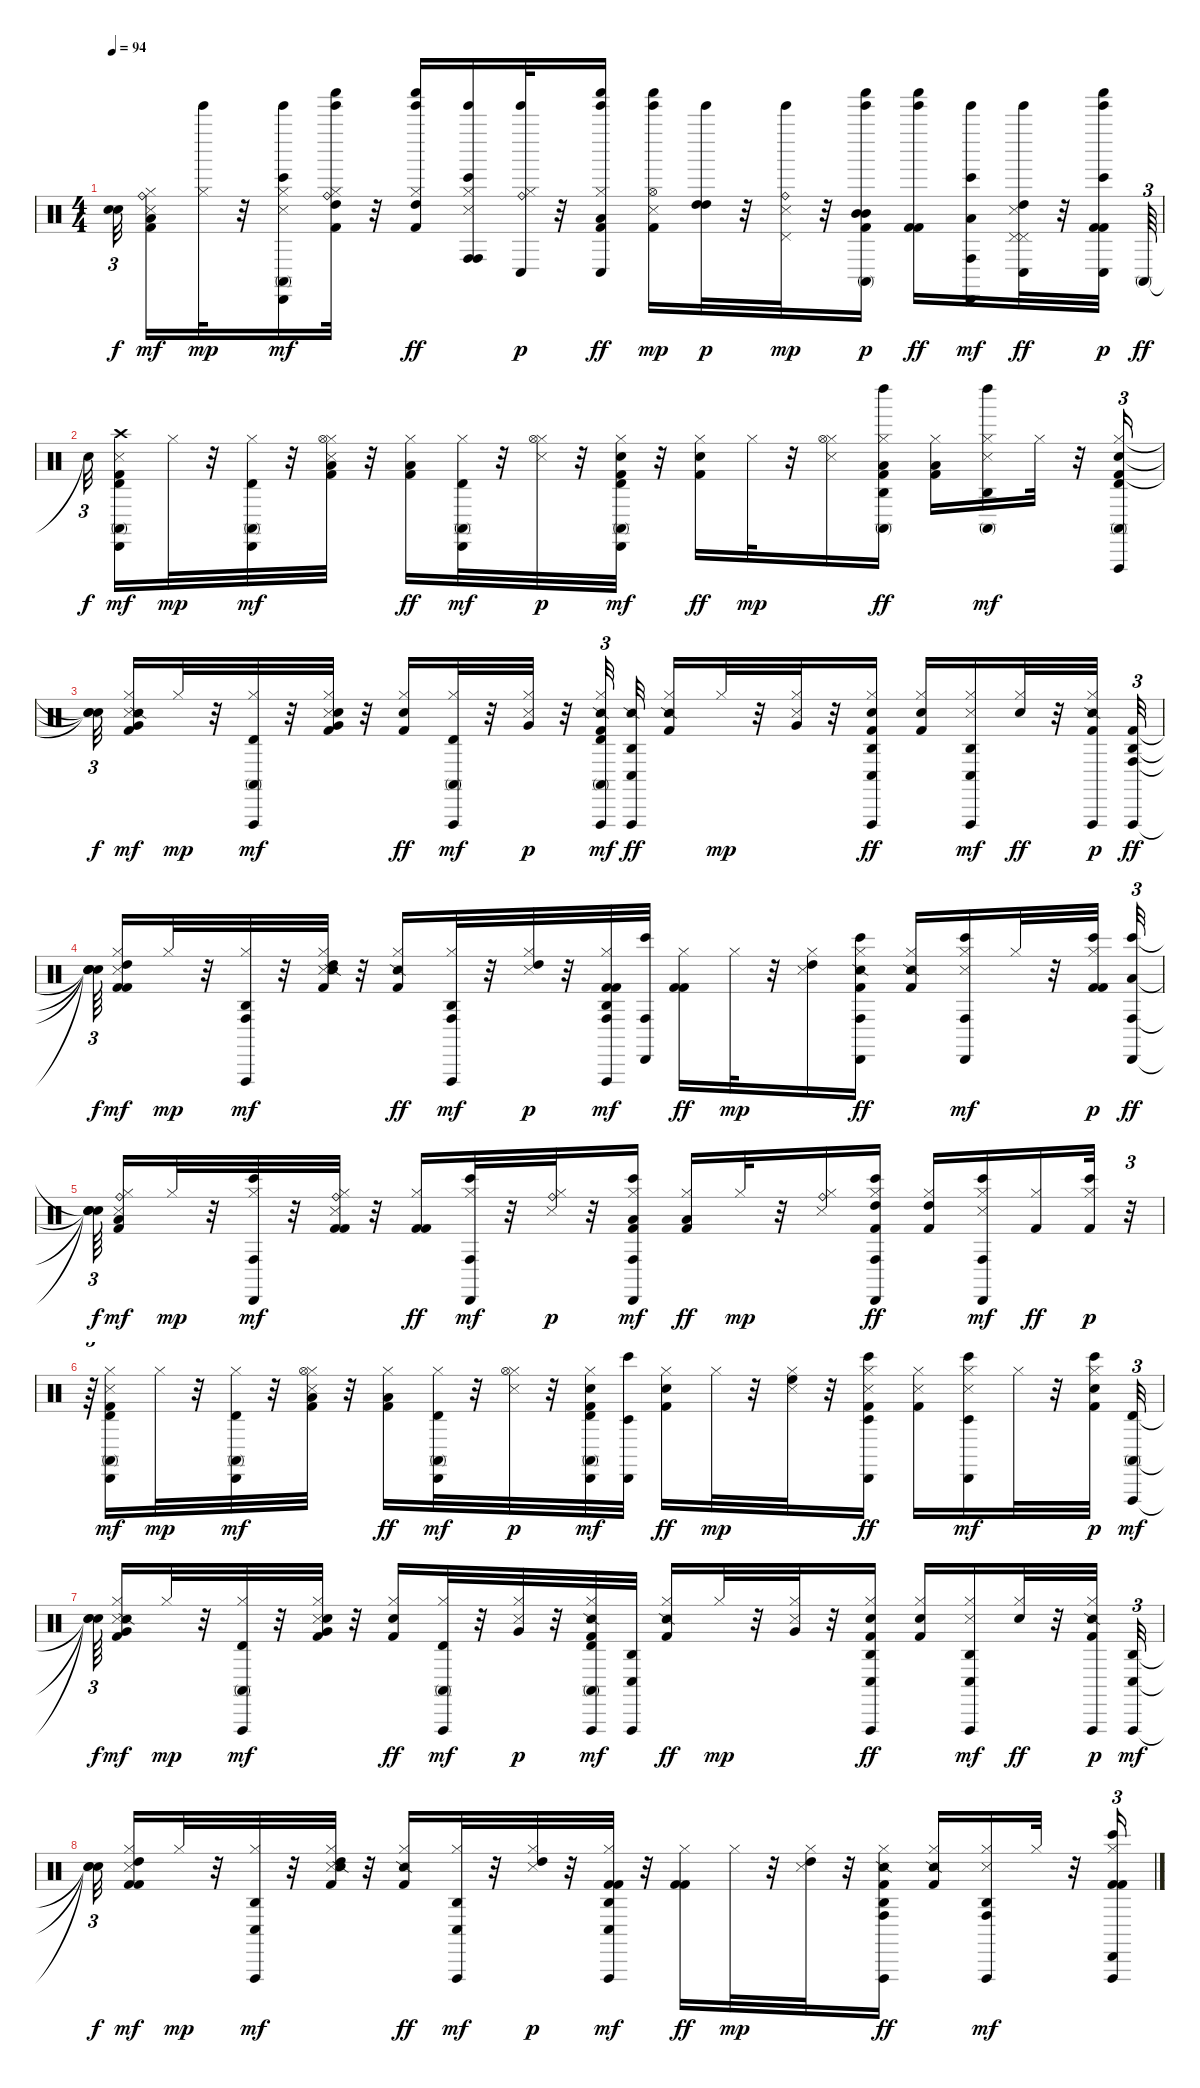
\track "" {instrument percussion}
\staff {score}
\articulation defaults
\ts (4 4)
\tempo 94
\clef neutral
\ks c
("Snare (hit)"{t} "Snare (hit)"{t}).32{tu (3 2) dy f beam splitsecondary} ("Kick (hit) 2" "Snare (side stick) 3" "Hi-Hat (closed)" "Low Floor Tom (hit)" "Ride (bell)").16{dy mf} ("Tinkle Bell (hit)" "Hi-Hat (closed)").32{dy mp} r.32 ("Tinkle Bell (hit)" "Conga high (mute)" "Snare (side stick) 3" "Hi-Hat (closed)" "Bongo High (hit)" "Cabasa (hit)").16{dy mf} ("Kick (hit) 2" "Hi-Hat (closed)" "Tinkle Bell (hit)" "Shaker (hit)" "High Tom (hit)" "Ride (bell)").32 r.32 ("Kick (hit) 2" "Hi-Hat (closed)" "Tinkle Bell (hit)" "Shaker (hit)" "High Tom (hit)").16{dy ff} ("Tinkle Bell (hit)" "Conga high (hit)" "Snare (side stick) 3" "Hi-Hat (closed)" "Bongo High (hit)" "Conga high (hit)").16 ("Tinkle Bell (hit)" "Conga low (hit)" "Hi-Hat (closed)" "Ride (bell)").32{dy p} r.32 ("Kick (hit) 2" "Conga low (hit)" "Hi-Hat (closed)" "Tinkle Bell (hit)" "Shaker (hit)" "Low Floor Tom (hit)").16{dy ff} ("Kick (hit) 2" "Snare (side stick) 3" "Tinkle Bell (hit)" "Shaker (hit)" "Hi-Hat (open)").16{dy mp} ("Tinkle Bell (hit)" "High Tom (hit)" "High Tom (hit)").32{dy p} r.32 ("Tinkle Bell (hit)" "Pedal Hi-Hat (hit)" "Snare (side stick) 3" "Ride (bell)").32{dy mp} r.32 ("Conga high (mute)" "Kick (hit) 2" "Tinkle Bell (hit)" "Shaker (hit)" "Mid Tom (hit)" "Mid Tom (hit)").16{dy p} ("Kick (hit) 2" "Tinkle Bell (hit)" "Shaker (hit)" "Kick (hit) 2").16{dy ff} ("Tinkle Bell (hit)" "Low Tom (hit)" "Cabasa (hit)" "Bongo High (hit)" "Conga high (hit)").16{dy mf} ("Tinkle Bell (hit)" "Conga low (hit)" "Pedal Hi-Hat (hit)" "Snare (side stick) 3" "Pedal Hi-Hat (hit)" "High Tom (hit)").32{dy ff} r.32 ("Kick (hit) 2" "Tinkle Bell (hit)" "Shaker (hit)" "Conga low (hit)" "Kick (hit) 2" "Bongo High (hit)").32{dy p volume 7} "Conga high (mute)".64{tu (3 2) dy ff volume 6} |
"Snare (hit)"{t}.32{tu (3 2) dy f beam splitsecondary} ("Conga high (mute)" "Cabasa (hit)" "Timbale high (hit)" "Crash high (hit)" "Kick (hit) 2" "Snare (side stick) 3").16{dy mf} "Hi-Hat (closed)".32{dy mp} r.32 ("Hi-Hat (closed)" "Conga high (mute)" "Cabasa (hit)" "Timbale high (hit)").32{dy mf} r.32 ("Kick (hit) 2" "Snare (side stick) 3" "Hi-Hat (closed)" "Low Floor Tom (hit)" "Hi-Hat (open)").32 r.32 ("Kick (hit) 2" "Hi-Hat (closed)" "Low Floor Tom (hit)").16{dy ff} ("Hi-Hat (closed)" "Conga high (mute)" "Timbale high (hit)" "Cabasa (hit)").32{dy mf} r.32 ("Snare (side stick) 3" "Hi-Hat (closed)" "Hi-Hat (open)").32{dy p} r.32 ("Kick (hit) 2" "Hi-Hat (closed)" "Metronome (bell)" "Cabasa (hit)" "Conga high (mute)" "Timbale high (hit)").32{dy mf} r.32 ("Kick (hit) 2" "Hi-Hat (closed)" "Metronome (bell)").16{dy ff} "Hi-Hat (closed)".32{dy mp} r.32 ("Snare (side stick) 3" "Hi-Hat (closed)" "Hi-Hat (open)").16 ("Kick (hit) 2" "Hi-Hat (closed)" "Low Floor Tom (hit)" "Agogo high (hit)" "Conga high (mute)" "Left Maraca (hit)").16{dy ff} ("Kick (hit) 2" "Hi-Hat (closed)" "Low Floor Tom (hit)").16 ("Snare (side stick) 3" "Hi-Hat (closed)" "Left Maraca (hit)" "Conga high (mute)" "Agogo high (hit)").16{dy mf} "Hi-Hat (closed)".32 r.32 ("Kick (hit) 2" "Hi-Hat (closed)" "Metronome (bell)" "Conga high (mute)" "Vibraslap (hit)" "Timbale high (hit)").16{tu (3 2) volume 7} |
("Snare (hit)"{t} "Snare (hit)"{t} "Snare (hit)"{t}).32{tu (3 2) dy f beam splitsecondary} ("Kick (hit) 2" "Snare (side stick) 3" "Hi-Hat (closed)" "Snare (side stick) 2" "Very Low Tom (hit)").16{dy mf} "Hi-Hat (closed)".32{dy mp} r.32 ("Hi-Hat (closed)" "Vibraslap (hit)" "Timbale high (hit)" "Conga high (mute)").32{dy mf} r.32 ("Kick (hit) 2" "Snare (side stick) 3" "Hi-Hat (closed)" "Snare (hit) 2" "Very Low Tom (hit)").32 r.32 ("Kick (hit) 2" "Hi-Hat (closed)" "Snare (hit) 2").16{dy ff} ("Hi-Hat (closed)" "Vibraslap (hit)" "Conga high (mute)" "Timbale high (hit)").32{dy mf} r.32 ("Snare (side stick) 3" "Hi-Hat (closed)" "Very Low Tom (hit)").32{dy p} r.32 ("Kick (hit) 2" "Hi-Hat (closed)" "Snare (side stick) 2" "Timbale high (hit)" "Vibraslap (hit)" "Conga high (mute)").32{tu (3 2) dy mf volume 7} ("Vibraslap (hit)" "Agogo high (hit)" "Conga low (hit)" "Snare (side stick) 2").32{dy ff volume 6} ("Kick (hit) 2" "Hi-Hat (closed)" "Snare (side stick) 2").16 "Hi-Hat (closed)".32{dy mp} r.32 ("Snare (side stick) 3" "Hi-Hat (closed)" "Very Low Tom (hit)").32 r.32 ("Kick (hit) 2" "Hi-Hat (closed)" "Snare (hit) 2" "Conga low (hit)" "Vibraslap (hit)" "Agogo high (hit)").16{dy ff} ("Kick (hit) 2" "Hi-Hat (closed)" "Snare (hit) 2").16 ("Snare (side stick) 3" "Hi-Hat (closed)" "Agogo high (hit)" "Vibraslap (hit)" "Conga low (hit)").16{dy mf} ("Hi-Hat (closed)" "Snare (hit) 2").32{dy ff} r.32 ("Kick (hit) 2" "Hi-Hat (closed)" "Snare (side stick) 2" "Vibraslap (hit)").32{dy p} ("Vibraslap (hit)" "Agogo high (hit)" "Conga high (hit)" "Kick (hit) 2").32{tu (3 2) dy ff volume 6} |
("Snare (hit)"{t} "Snare (hit)"{t} "Snare (hit)"{t} "Snare (hit)"{t}).64{tu (3 2) dy f beam splitsecondary} ("Kick (hit) 2" "Snare (side stick) 3" "Hi-Hat (closed)" "Kick (hit) 2" "High Tom (hit)").16{dy mf} "Hi-Hat (closed)".32{dy mp} r.32 ("Hi-Hat (closed)" "Vibraslap (hit)" "Agogo high (hit)" "Conga high (hit)").32{dy mf} r.32 ("Kick (hit) 2" "Snare (side stick) 3" "Hi-Hat (closed)" "Snare (side stick) 2" "High Tom (hit)").32 r.32 ("Kick (hit) 2" "Hi-Hat (closed)" "Snare (side stick) 2").16{dy ff} ("Hi-Hat (closed)" "Vibraslap (hit)" "Conga high (hit)" "Agogo high (hit)").32{dy mf} r.32 ("Snare (side stick) 3" "Hi-Hat (closed)" "High Tom (hit)").32{dy p} r.32 ("Kick (hit) 2" "Hi-Hat (closed)" "Kick (hit) 2" "Agogo high (hit)" "Vibraslap (hit)" "Conga high (hit)").32{dy mf volume 7} ("Bongo High (hit)" "Cabasa (hit)" "Conga high (hit)").32{volume 6} ("Kick (hit) 2" "Hi-Hat (closed)" "Kick (hit) 2").16{dy ff} "Hi-Hat (closed)".32{dy mp} r.32 ("Snare (side stick) 3" "Hi-Hat (closed)" "High Tom (hit)").16 ("Kick (hit) 2" "Hi-Hat (closed)" "Snare (side stick) 2" "Conga high (hit)" "Bongo High (hit)" "Cabasa (hit)").16{dy ff} ("Kick (hit) 2" "Hi-Hat (closed)" "Snare (side stick) 2").16 ("Snare (side stick) 3" "Hi-Hat (closed)" "Cabasa (hit)" "Bongo High (hit)" "Conga high (hit)").16{dy mf} "Hi-Hat (closed)".32 r.32 ("Kick (hit) 2" "Hi-Hat (closed)" "Kick (hit) 2" "Bongo High (hit)").32{dy p volume 7} ("Bongo High (hit)" "Cabasa (hit)" "Conga high (hit)" "Low Floor Tom (hit)").32{tu (3 2) dy ff volume 6} |
("Snare (hit)"{t} "Snare (hit)"{t} "Snare (hit)"{t} "Snare (hit)"{t}).64{tu (3 2) dy f beam splitsecondary} ("Kick (hit) 2" "Snare (side stick) 3" "Hi-Hat (closed)" "Low Floor Tom (hit)" "Ride (bell)").16{dy mf} "Hi-Hat (closed)".32{dy mp} r.32 ("Hi-Hat (closed)" "Bongo High (hit)" "Cabasa (hit)" "Conga high (hit)").32{dy mf} r.32 ("Kick (hit) 2" "Snare (side stick) 3" "Hi-Hat (closed)" "Kick (hit) 2" "Ride (bell)").32 r.32 ("Kick (hit) 2" "Hi-Hat (closed)" "Kick (hit) 2").16{dy ff} ("Hi-Hat (closed)" "Bongo High (hit)" "Conga high (hit)" "Cabasa (hit)").32{dy mf} r.32 ("Snare (side stick) 3" "Hi-Hat (closed)" "Ride (bell)").32{dy p} r.32 ("Kick (hit) 2" "Hi-Hat (closed)" "Low Floor Tom (hit)" "Cabasa (hit)" "Bongo High (hit)" "Conga high (hit)").16{dy mf} ("Kick (hit) 2" "Hi-Hat (closed)" "Low Floor Tom (hit)").16{dy ff} "Hi-Hat (closed)".32{dy mp} r.32 ("Snare (side stick) 3" "Hi-Hat (closed)" "Ride (bell)").16 ("Kick (hit) 2" "Hi-Hat (closed)" "High Tom (hit)" "Conga high (hit)" "Bongo High (hit)" "Cabasa (hit)").16{dy ff} ("Kick (hit) 2" "Hi-Hat (closed)" "High Tom (hit)").16 ("Snare (side stick) 3" "Hi-Hat (closed)" "Cabasa (hit)" "Bongo High (hit)" "Conga high (hit)").16{dy mf} ("Hi-Hat (closed)" "Kick (hit) 2").16{dy ff} ("Kick (hit) 2" "Hi-Hat (closed)" "Bongo High (hit)").32{dy p} r.32{tu (3 2)} |
r.64{tu (3 2)} ("Conga high (mute)" "Cabasa (hit)" "Timbale high (hit)" "Kick (hit) 2" "Snare (side stick) 3" "Hi-Hat (closed)").16{dy mf volume 6} "Hi-Hat (closed)".32{dy mp} r.32 ("Hi-Hat (closed)" "Conga high (mute)" "Cabasa (hit)" "Timbale high (hit)").32{dy mf} r.32 ("Kick (hit) 2" "Snare (side stick) 3" "Hi-Hat (closed)" "Low Floor Tom (hit)" "Hi-Hat (open)").32 r.32 ("Kick (hit) 2" "Hi-Hat (closed)" "Low Floor Tom (hit)").16{dy ff} ("Hi-Hat (closed)" "Conga high (mute)" "Timbale high (hit)" "Cabasa (hit)").32{dy mf} r.32 ("Snare (side stick) 3" "Hi-Hat (closed)" "Hi-Hat (open)").32{dy p} r.32 ("Kick (hit) 2" "Hi-Hat (closed)" "Metronome (bell)" "Cabasa (hit)" "Conga high (mute)" "Timbale high (hit)").32{dy mf} ("Bongo High (hit)" "Cabasa (hit)" "Timbale low (hit)").32{volume 6} ("Kick (hit) 2" "Hi-Hat (closed)" "Snare (hit) 2").16{dy ff} "Hi-Hat (closed)".32{dy mp} r.32 ("Snare (side stick) 3" "Hi-Hat (closed)" "High Floor Tom (hit)").32 r.32 ("Kick (hit) 2" "Hi-Hat (closed)" "Metronome (hit)" "Timbale low (hit)" "Bongo High (hit)" "Cabasa (hit)").16{dy ff} ("Kick (hit) 2" "Hi-Hat (closed)" "Metronome (hit)").16 ("Snare (side stick) 3" "Hi-Hat (closed)" "Cabasa (hit)" "Bongo High (hit)" "Timbale low (hit)").16{dy mf} "Hi-Hat (closed)".32 r.32 ("Kick (hit) 2" "Hi-Hat (closed)" "Snare (hit) 2" "Bongo High (hit)").32{dy p volume 7} ("Vibraslap (hit)" "Timbale high (hit)" "Conga high (mute)").32{tu (3 2) dy mf volume 6} |
("Snare (hit)"{t} "Snare (hit)"{t} "Snare (hit)"{t}).64{tu (3 2) dy f beam splitsecondary} ("Kick (hit) 2" "Snare (side stick) 3" "Hi-Hat (closed)" "Snare (side stick) 2" "Very Low Tom (hit)").16{dy mf} "Hi-Hat (closed)".32{dy mp} r.32 ("Hi-Hat (closed)" "Vibraslap (hit)" "Timbale high (hit)" "Conga high (mute)").32{dy mf} r.32 ("Kick (hit) 2" "Snare (side stick) 3" "Hi-Hat (closed)" "Snare (hit) 2" "Very Low Tom (hit)").32 r.32 ("Kick (hit) 2" "Hi-Hat (closed)" "Snare (hit) 2").16{dy ff} ("Hi-Hat (closed)" "Vibraslap (hit)" "Conga high (mute)" "Timbale high (hit)").32{dy mf} r.32 ("Snare (side stick) 3" "Hi-Hat (closed)" "Very Low Tom (hit)").32{dy p} r.32 ("Kick (hit) 2" "Hi-Hat (closed)" "Snare (side stick) 2" "Timbale high (hit)" "Vibraslap (hit)" "Conga high (mute)").32{dy mf volume 7} ("Vibraslap (hit)" "Agogo high (hit)" "Conga low (hit)").32{volume 6} ("Kick (hit) 2" "Hi-Hat (closed)" "Snare (side stick) 2").16{dy ff} "Hi-Hat (closed)".32{dy mp} r.32 ("Snare (side stick) 3" "Hi-Hat (closed)" "Very Low Tom (hit)").32 r.32 ("Kick (hit) 2" "Hi-Hat (closed)" "Snare (hit) 2" "Conga low (hit)" "Vibraslap (hit)" "Agogo high (hit)").16{dy ff} ("Kick (hit) 2" "Hi-Hat (closed)" "Snare (hit) 2").16 ("Snare (side stick) 3" "Hi-Hat (closed)" "Agogo high (hit)" "Vibraslap (hit)" "Conga low (hit)").16{dy mf} ("Hi-Hat (closed)" "Snare (hit) 2").32{dy ff} r.32 ("Kick (hit) 2" "Hi-Hat (closed)" "Snare (side stick) 2" "Vibraslap (hit)").32{dy p volume 7} ("Vibraslap (hit)" "Agogo high (hit)" "Conga low (hit)").32{tu (3 2) dy mf volume 6} |
("Snare (hit)"{t} "Snare (hit)"{t} "Snare (hit)"{t}).32{tu (3 2) dy f beam splitsecondary} ("Kick (hit) 2" "Snare (side stick) 3" "Hi-Hat (closed)" "Kick (hit) 2" "High Tom (hit)").16{dy mf} "Hi-Hat (closed)".32{dy mp} r.32 ("Hi-Hat (closed)" "Vibraslap (hit)" "Agogo high (hit)" "Conga low (hit)").32{dy mf} r.32 ("Kick (hit) 2" "Snare (side stick) 3" "Hi-Hat (closed)" "Snare (side stick) 2" "High Tom (hit)").32 r.32 ("Kick (hit) 2" "Hi-Hat (closed)" "Snare (side stick) 2").16{dy ff} ("Hi-Hat (closed)" "Vibraslap (hit)" "Conga low (hit)" "Agogo high (hit)").32{dy mf} r.32 ("Snare (side stick) 3" "Hi-Hat (closed)" "High Tom (hit)").32{dy p} r.32 ("Kick (hit) 2" "Hi-Hat (closed)" "Kick (hit) 2" "Agogo high (hit)" "Vibraslap (hit)" "Conga low (hit)").32{dy mf volume 7} r.32 ("Kick (hit) 2" "Hi-Hat (closed)" "Kick (hit) 2").16{dy ff} "Hi-Hat (closed)".32{dy mp} r.32 ("Snare (side stick) 3" "Hi-Hat (closed)" "High Tom (hit)").32 r.32 ("Kick (hit) 2" "Hi-Hat (closed)" "Snare (side stick) 2" "Conga high (hit)" "Vibraslap (hit)" "Agogo high (hit)").16{dy ff} ("Kick (hit) 2" "Hi-Hat (closed)" "Snare (side stick) 2").16 ("Snare (side stick) 3" "Hi-Hat (closed)" "Agogo high (hit)" "Vibraslap (hit)" "Conga high (hit)").16{dy mf} "Hi-Hat (closed)".32 r.32 ("Kick (hit) 2" "Hi-Hat (closed)" "Kick (hit) 2" "Vibraslap (hit)" "Bongo High (hit)" "Cabasa (hit)").16{tu (3 2)}
